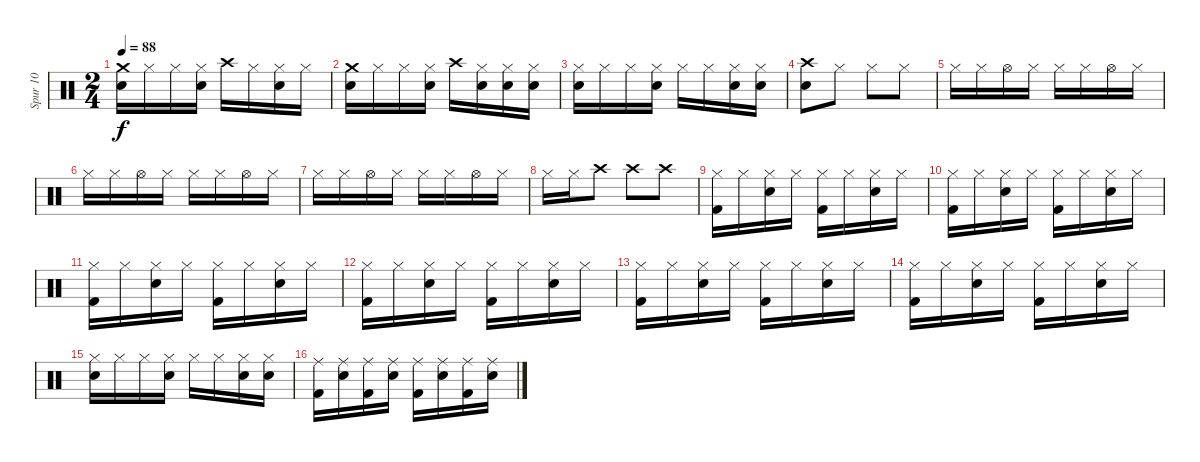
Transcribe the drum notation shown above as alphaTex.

\track ("Spur 10" "Spur 10") {instrument percussion}
\staff {score}
\articulation defaults
\ts (2 4)
\tempo 88
\clef neutral
\ks c
("Snare (hit) 2" "Crash medium (hit)").16{dy f} "Hi-Hat (closed)".16 "Hi-Hat (closed)".16 ("Snare (hit) 2" "Hi-Hat (closed)").16 "Crash high (hit)".16 "Hi-Hat (closed)".16 ("Snare (hit) 2" "Hi-Hat (closed)").16 "Hi-Hat (closed)".16 |
("Snare (hit) 2" "Crash medium (hit)").16 "Hi-Hat (closed)".16 "Hi-Hat (closed)".16 ("Electric Snare (hit)" "Hi-Hat (closed)").16 "Crash high (hit)".16 ("Electric Snare (hit)" "Hi-Hat (closed)").16 ("Snare (hit) 2" "Hi-Hat (closed)").16 ("Electric Snare (hit)" "Hi-Hat (closed)").16 |
("Snare (hit) 2" "Hi-Hat (closed)").16 "Hi-Hat (closed)".16 "Hi-Hat (closed)".16 ("Snare (hit) 2" "Hi-Hat (closed)").16 "Hi-Hat (closed)".16 "Hi-Hat (closed)".16 ("Electric Snare (hit)" "Hi-Hat (closed)").16 ("Electric Snare (hit)" "Hi-Hat (closed)").16 |
("Snare (hit) 2" "Crash high (hit)").8 "Hi-Hat (closed)".8 "Hi-Hat (closed)".8 "Hi-Hat (closed)".8 |
"Hi-Hat (closed)".16 "Hi-Hat (closed)".16 "Hi-Hat (open)".16 "Hi-Hat (closed)".16 "Hi-Hat (closed)".16 "Hi-Hat (closed)".16 "Hi-Hat (open)".16 "Hi-Hat (closed)".16 |
"Hi-Hat (closed)".16 "Hi-Hat (closed)".16 "Hi-Hat (open)".16 "Hi-Hat (closed)".16 "Hi-Hat (closed)".16 "Hi-Hat (closed)".16 "Hi-Hat (open)".16 "Hi-Hat (closed)".16 |
"Hi-Hat (closed)".16 "Hi-Hat (closed)".16 "Hi-Hat (open)".16 "Hi-Hat (closed)".16 "Hi-Hat (closed)".16 "Hi-Hat (closed)".16 "Hi-Hat (open)".16 "Hi-Hat (closed)".16 |
"Hi-Hat (closed)".16 "Hi-Hat (closed)".16 "Crash high (hit)".8 "Crash high (hit)".8 "Crash high (hit)".8 |
("Hi-Hat (closed)" "Kick (hit) 2").16 "Hi-Hat (closed)".16 ("Hi-Hat (closed)" "Snare (hit) 2").16 "Hi-Hat (closed)".16 ("Hi-Hat (closed)" "Kick (hit) 2").16 "Hi-Hat (closed)".16 ("Hi-Hat (closed)" "Snare (hit) 2").16 "Hi-Hat (closed)".16 |
("Hi-Hat (closed)" "Kick (hit) 2").16 "Hi-Hat (closed)".16 ("Hi-Hat (closed)" "Snare (hit) 2").16 "Hi-Hat (closed)".16 ("Hi-Hat (closed)" "Kick (hit) 2").16 "Hi-Hat (closed)".16 ("Hi-Hat (closed)" "Snare (hit) 2").16 "Hi-Hat (closed)".16 |
("Hi-Hat (closed)" "Kick (hit) 2").16 "Hi-Hat (closed)".16 ("Hi-Hat (closed)" "Snare (hit) 2").16 "Hi-Hat (closed)".16 ("Hi-Hat (closed)" "Kick (hit) 2").16 "Hi-Hat (closed)".16 ("Hi-Hat (closed)" "Snare (hit) 2").16 "Hi-Hat (closed)".16 |
("Hi-Hat (closed)" "Kick (hit) 2").16 "Hi-Hat (closed)".16 ("Hi-Hat (closed)" "Snare (hit) 2").16 "Hi-Hat (closed)".16 ("Hi-Hat (closed)" "Kick (hit) 2").16 "Hi-Hat (closed)".16 ("Hi-Hat (closed)" "Snare (hit) 2").16 "Hi-Hat (closed)".16 |
("Hi-Hat (closed)" "Kick (hit) 2").16 "Hi-Hat (closed)".16 ("Hi-Hat (closed)" "Snare (hit) 2").16 "Hi-Hat (closed)".16 ("Hi-Hat (closed)" "Kick (hit) 2").16 "Hi-Hat (closed)".16 ("Hi-Hat (closed)" "Snare (hit) 2").16 "Hi-Hat (closed)".16 |
("Hi-Hat (closed)" "Kick (hit) 2").16 "Hi-Hat (closed)".16 ("Hi-Hat (closed)" "Snare (hit) 2").16 "Hi-Hat (closed)".16 ("Hi-Hat (closed)" "Kick (hit) 2").16 "Hi-Hat (closed)".16 ("Hi-Hat (closed)" "Snare (hit) 2").16 "Hi-Hat (closed)".16 |
("Snare (hit) 2" "Hi-Hat (closed)").16 "Hi-Hat (closed)".16 "Hi-Hat (closed)".16 ("Snare (hit) 2" "Hi-Hat (closed)").16 "Hi-Hat (closed)".16 "Hi-Hat (closed)".16 ("Electric Snare (hit)" "Hi-Hat (closed)").16 ("Electric Snare (hit)" "Hi-Hat (closed)").16 |
("Ride (middle)" "Kick (hit) 2").16 ("Ride (middle)" "Snare (hit) 2").16 ("Ride (middle)" "Kick (hit) 2").16 ("Ride (middle)" "Snare (hit) 2").16 ("Ride (middle)" "Kick (hit) 2").16 ("Ride (middle)" "Snare (hit) 2").16 ("Ride (middle)" "Kick (hit) 2").16 ("Ride (middle)" "Snare (hit) 2").16
